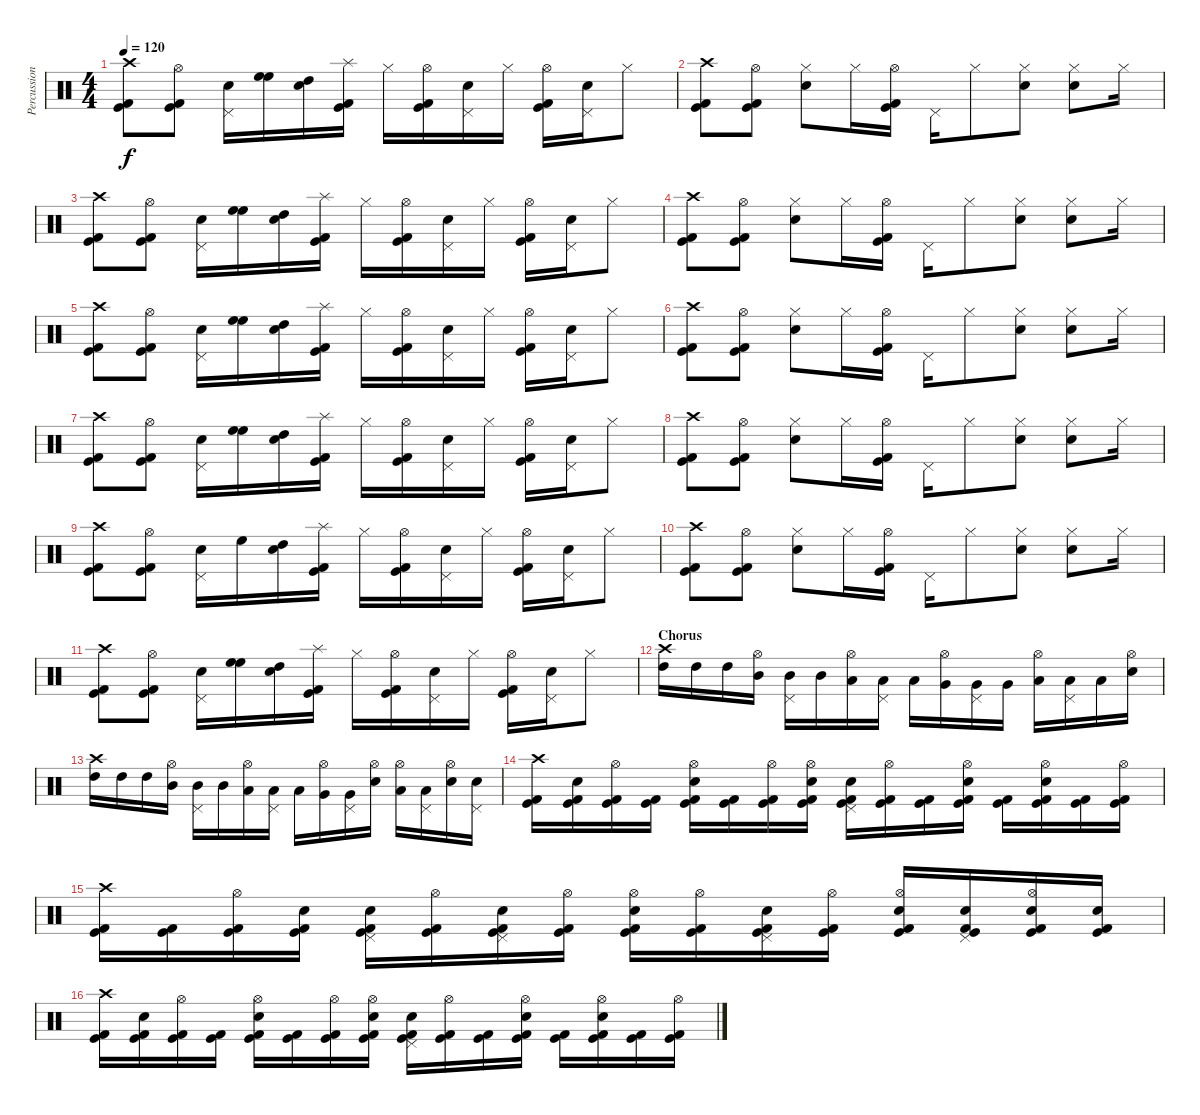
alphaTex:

\track ("Percussion" "Percussion") {instrument percussion}
\staff {score}
\articulation defaults
\ts (4 4)
\tempo 120
\clef neutral
\ks c
("Crash high (hit)" "Kick (hit) 2" "Kick (hit)").8{dy f} ("Hi-Hat (open)" "Kick (hit) 2" "Kick (hit)").8 ("Pedal Hi-Hat (hit)" "Snare (hit) 2").16 ("High Floor Tom (hit)" "High Floor Tom (hit)").16 ("Snare (hit) 2" "High Tom (hit)").16 ("Splash (hit)" "Kick (hit) 2" "Kick (hit)").16 "Hi-Hat (closed)".16 ("Hi-Hat (open)" "Kick (hit) 2" "Kick (hit)").16 ("Pedal Hi-Hat (hit)" "Snare (hit) 2").16 "Hi-Hat (closed)".16 ("Hi-Hat (open)" "Kick (hit) 2" "Kick (hit)").16 ("Pedal Hi-Hat (hit)" "Snare (hit) 2").16 "Hi-Hat (closed)".8 |
("Crash high (hit)" "Kick (hit) 2" "Kick (hit)").8 ("Hi-Hat (open)" "Kick (hit) 2" "Kick (hit)").8 ("Hi-Hat (closed)" "Snare (hit) 2").8 "Hi-Hat (closed)".16 ("Hi-Hat (open)" "Kick (hit) 2" "Kick (hit)").16 "Pedal Hi-Hat (hit)".16 "Hi-Hat (closed)".8 ("Hi-Hat (closed)" "Snare (hit) 2").8 ("Hi-Hat (closed)" "Snare (hit) 2").8 "Hi-Hat (closed)".16 |
("Crash high (hit)" "Kick (hit) 2" "Kick (hit)").8 ("Hi-Hat (open)" "Kick (hit) 2" "Kick (hit)").8 ("Pedal Hi-Hat (hit)" "Snare (hit) 2").16 ("High Floor Tom (hit)" "High Floor Tom (hit)").16 ("Snare (hit) 2" "High Tom (hit)").16 ("Splash (hit)" "Kick (hit) 2" "Kick (hit)").16 "Hi-Hat (closed)".16 ("Hi-Hat (open)" "Kick (hit) 2" "Kick (hit)").16 ("Pedal Hi-Hat (hit)" "Snare (hit) 2").16 "Hi-Hat (closed)".16 ("Hi-Hat (open)" "Kick (hit) 2" "Kick (hit)").16 ("Pedal Hi-Hat (hit)" "Snare (hit) 2").16 "Hi-Hat (closed)".8 |
("Crash high (hit)" "Kick (hit) 2" "Kick (hit)").8 ("Hi-Hat (open)" "Kick (hit) 2" "Kick (hit)").8 ("Hi-Hat (closed)" "Snare (hit) 2").8 "Hi-Hat (closed)".16 ("Hi-Hat (open)" "Kick (hit) 2" "Kick (hit)").16 "Pedal Hi-Hat (hit)".16 "Hi-Hat (closed)".8 ("Hi-Hat (closed)" "Snare (hit) 2").8 ("Hi-Hat (closed)" "Snare (hit) 2").8 "Hi-Hat (closed)".16 |
("Crash high (hit)" "Kick (hit) 2" "Kick (hit)").8 ("Hi-Hat (open)" "Kick (hit) 2" "Kick (hit)").8 ("Pedal Hi-Hat (hit)" "Snare (hit) 2").16 ("High Floor Tom (hit)" "High Floor Tom (hit)").16 ("Snare (hit) 2" "High Tom (hit)").16 ("Splash (hit)" "Kick (hit) 2" "Kick (hit)").16 "Hi-Hat (closed)".16 ("Hi-Hat (open)" "Kick (hit) 2" "Kick (hit)").16 ("Pedal Hi-Hat (hit)" "Snare (hit) 2").16 "Hi-Hat (closed)".16 ("Hi-Hat (open)" "Kick (hit) 2" "Kick (hit)").16 ("Pedal Hi-Hat (hit)" "Snare (hit) 2").16 "Hi-Hat (closed)".8 |
("Crash high (hit)" "Kick (hit) 2" "Kick (hit)").8 ("Hi-Hat (open)" "Kick (hit) 2" "Kick (hit)").8 ("Hi-Hat (closed)" "Snare (hit) 2").8 "Hi-Hat (closed)".16 ("Hi-Hat (open)" "Kick (hit) 2" "Kick (hit)").16 "Pedal Hi-Hat (hit)".16 "Hi-Hat (closed)".8 ("Hi-Hat (closed)" "Snare (hit) 2").8 ("Hi-Hat (closed)" "Snare (hit) 2").8 "Hi-Hat (closed)".16 |
("Crash high (hit)" "Kick (hit) 2" "Kick (hit)").8 ("Hi-Hat (open)" "Kick (hit) 2" "Kick (hit)").8 ("Pedal Hi-Hat (hit)" "Snare (hit) 2").16 ("High Floor Tom (hit)" "High Floor Tom (hit)").16 ("Snare (hit) 2" "High Tom (hit)").16 ("Splash (hit)" "Kick (hit) 2" "Kick (hit)").16 "Hi-Hat (closed)".16 ("Hi-Hat (open)" "Kick (hit) 2" "Kick (hit)").16 ("Pedal Hi-Hat (hit)" "Snare (hit) 2").16 "Hi-Hat (closed)".16 ("Hi-Hat (open)" "Kick (hit) 2" "Kick (hit)").16 ("Pedal Hi-Hat (hit)" "Snare (hit) 2").16 "Hi-Hat (closed)".8 |
("Crash high (hit)" "Kick (hit) 2" "Kick (hit)").8 ("Hi-Hat (open)" "Kick (hit) 2" "Kick (hit)").8 ("Hi-Hat (closed)" "Snare (hit) 2").8 "Hi-Hat (closed)".16 ("Hi-Hat (open)" "Kick (hit) 2" "Kick (hit)").16 "Pedal Hi-Hat (hit)".16 "Hi-Hat (closed)".8 ("Hi-Hat (closed)" "Snare (hit) 2").8 ("Hi-Hat (closed)" "Snare (hit) 2").8 "Hi-Hat (closed)".16 |
("Crash high (hit)" "Kick (hit) 2" "Kick (hit)").8 ("Hi-Hat (open)" "Kick (hit) 2" "Kick (hit)").8 ("Pedal Hi-Hat (hit)" "Snare (hit) 2").16 "High Floor Tom (hit)".16 ("Snare (hit) 2" "High Tom (hit)").16 ("Splash (hit)" "Kick (hit) 2" "Kick (hit)").16 "Hi-Hat (closed)".16 ("Hi-Hat (open)" "Kick (hit) 2" "Kick (hit)").16 ("Pedal Hi-Hat (hit)" "Snare (hit) 2").16 "Hi-Hat (closed)".16 ("Hi-Hat (open)" "Kick (hit) 2" "Kick (hit)").16 ("Pedal Hi-Hat (hit)" "Snare (hit) 2").16 "Hi-Hat (closed)".8 |
("Crash high (hit)" "Kick (hit) 2" "Kick (hit)").8 ("Hi-Hat (open)" "Kick (hit) 2" "Kick (hit)").8 ("Hi-Hat (closed)" "Snare (hit) 2").8 "Hi-Hat (closed)".16 ("Hi-Hat (open)" "Kick (hit) 2" "Kick (hit)").16 "Pedal Hi-Hat (hit)".16 "Hi-Hat (closed)".8 ("Hi-Hat (closed)" "Snare (hit) 2").8 ("Hi-Hat (closed)" "Snare (hit) 2").8 "Hi-Hat (closed)".16 |
("Crash high (hit)" "Kick (hit) 2" "Kick (hit)").8 ("Hi-Hat (open)" "Kick (hit) 2" "Kick (hit)").8 ("Pedal Hi-Hat (hit)" "Snare (hit) 2").16 ("High Floor Tom (hit)" "High Floor Tom (hit)").16 ("Snare (hit) 2" "High Tom (hit)").16 ("Splash (hit)" "Kick (hit) 2" "Kick (hit)").16 "Hi-Hat (closed)".16 ("Hi-Hat (open)" "Kick (hit) 2" "Kick (hit)").16 ("Pedal Hi-Hat (hit)" "Snare (hit) 2").16 "Hi-Hat (closed)".16 ("Hi-Hat (open)" "Kick (hit) 2" "Kick (hit)").16 ("Pedal Hi-Hat (hit)" "Snare (hit) 2").16 "Hi-Hat (closed)".8 |
\section ("" "Chorus")
("Crash high (hit)" "High Tom (hit)").16 "High Tom (hit)".16 "High Tom (hit)".16 ("Hi-Hat (open)" "Mid Tom (hit)").16 ("Pedal Hi-Hat (hit)" "Mid Tom (hit)").16 "Mid Tom (hit)".16 ("Hi-Hat (open)" "Low Tom (hit)").16 ("Pedal Hi-Hat (hit)" "Low Tom (hit)").16 "Low Tom (hit)".16 ("Hi-Hat (open)" "Very Low Tom (hit)").16 ("Pedal Hi-Hat (hit)" "Very Low Tom (hit)").16 "Very Low Tom (hit)".16 ("Hi-Hat (open)" "Low Floor Tom (hit)").16 ("Pedal Hi-Hat (hit)" "Low Floor Tom (hit)").16 "Low Floor Tom (hit)".16 ("Hi-Hat (open)" "Electric Snare (hit)").16 |
("Crash high (hit)" "High Tom (hit)").16 "High Tom (hit)".16 "High Tom (hit)".16 ("Hi-Hat (open)" "Mid Tom (hit)").16 ("Pedal Hi-Hat (hit)" "Mid Tom (hit)").16 "Mid Tom (hit)".16 ("Hi-Hat (open)" "Low Tom (hit)").16 ("Pedal Hi-Hat (hit)" "Low Tom (hit)").16 "Low Tom (hit)".16 ("Hi-Hat (open)" "Very Low Tom (hit)").16 ("Pedal Hi-Hat (hit)" "Very Low Tom (hit)").16 ("Hi-Hat (open)" "Electric Snare (hit)").16 ("Hi-Hat (open)" "Low Floor Tom (hit)").16 ("Pedal Hi-Hat (hit)" "Low Floor Tom (hit)").16 ("Hi-Hat (open)" "Electric Snare (hit)").16 ("Pedal Hi-Hat (hit)" "Electric Snare (hit)").16 |
("Crash high (hit)" "Kick (hit) 2" "Kick (hit)").16 ("Snare (hit) 2" "Kick (hit) 2" "Kick (hit)").16 ("Hi-Hat (open)" "Kick (hit) 2" "Kick (hit)").16 ("Kick (hit) 2" "Kick (hit)").16 ("Hi-Hat (open)" "Snare (hit) 2" "Kick (hit) 2" "Kick (hit)").16 ("Kick (hit) 2" "Kick (hit)").16 ("Hi-Hat (open)" "Kick (hit) 2" "Kick (hit)").16 ("Hi-Hat (open)" "Snare (hit) 2" "Kick (hit) 2" "Kick (hit)").16 ("Pedal Hi-Hat (hit)" "Snare (hit) 2" "Kick (hit) 2" "Kick (hit)").16 ("Hi-Hat (open)" "Kick (hit) 2" "Kick (hit)").16 ("Kick (hit) 2" "Kick (hit)").16 ("Hi-Hat (open)" "Snare (hit) 2" "Kick (hit) 2" "Kick (hit)").16 ("Kick (hit) 2" "Kick (hit)").16 ("Hi-Hat (open)" "Snare (hit) 2" "Kick (hit) 2" "Kick (hit)").16 ("Kick (hit) 2" "Kick (hit)").16 ("Hi-Hat (open)" "Kick (hit) 2" "Kick (hit)").16 |
("Crash high (hit)" "Kick (hit) 2" "Kick (hit)").16 ("Kick (hit) 2" "Kick (hit)").16 ("Hi-Hat (open)" "Kick (hit) 2" "Kick (hit)").16 ("Snare (hit) 2" "Kick (hit) 2" "Kick (hit)").16 ("Pedal Hi-Hat (hit)" "Snare (hit) 2" "Kick (hit) 2" "Kick (hit)").16 ("Hi-Hat (open)" "Kick (hit) 2" "Kick (hit)").16 ("Pedal Hi-Hat (hit)" "Snare (hit) 2" "Kick (hit) 2" "Kick (hit)").16 ("Hi-Hat (open)" "Kick (hit) 2" "Kick (hit)").16 ("Hi-Hat (open)" "Snare (hit) 2" "Kick (hit) 2" "Kick (hit)").16 ("Hi-Hat (open)" "Kick (hit) 2" "Kick (hit)").16 ("Pedal Hi-Hat (hit)" "Snare (hit) 2" "Kick (hit) 2" "Kick (hit)").16 ("Hi-Hat (open)" "Kick (hit) 2" "Kick (hit)").16 ("Hi-Hat (open)" "Snare (hit) 2" "Kick (hit) 2" "Kick (hit)").16 ("Pedal Hi-Hat (hit)" "Snare (hit) 2" "Kick (hit) 2" "Kick (hit)").16 ("Hi-Hat (open)" "Snare (hit) 2" "Kick (hit) 2" "Kick (hit)").16 ("Snare (hit) 2" "Kick (hit) 2" "Kick (hit)").16 |
("Crash high (hit)" "Kick (hit) 2" "Kick (hit)").16 ("Snare (hit) 2" "Kick (hit) 2" "Kick (hit)").16 ("Hi-Hat (open)" "Kick (hit) 2" "Kick (hit)").16 ("Kick (hit) 2" "Kick (hit)").16 ("Hi-Hat (open)" "Snare (hit) 2" "Kick (hit) 2" "Kick (hit)").16 ("Kick (hit) 2" "Kick (hit)").16 ("Hi-Hat (open)" "Kick (hit) 2" "Kick (hit)").16 ("Hi-Hat (open)" "Snare (hit) 2" "Kick (hit) 2" "Kick (hit)").16 ("Pedal Hi-Hat (hit)" "Snare (hit) 2" "Kick (hit) 2" "Kick (hit)").16 ("Hi-Hat (open)" "Kick (hit) 2" "Kick (hit)").16 ("Kick (hit) 2" "Kick (hit)").16 ("Hi-Hat (open)" "Snare (hit) 2" "Kick (hit) 2" "Kick (hit)").16 ("Kick (hit) 2" "Kick (hit)").16 ("Hi-Hat (open)" "Snare (hit) 2" "Kick (hit) 2" "Kick (hit)").16 ("Kick (hit) 2" "Kick (hit)").16 ("Hi-Hat (open)" "Kick (hit) 2" "Kick (hit)").16
